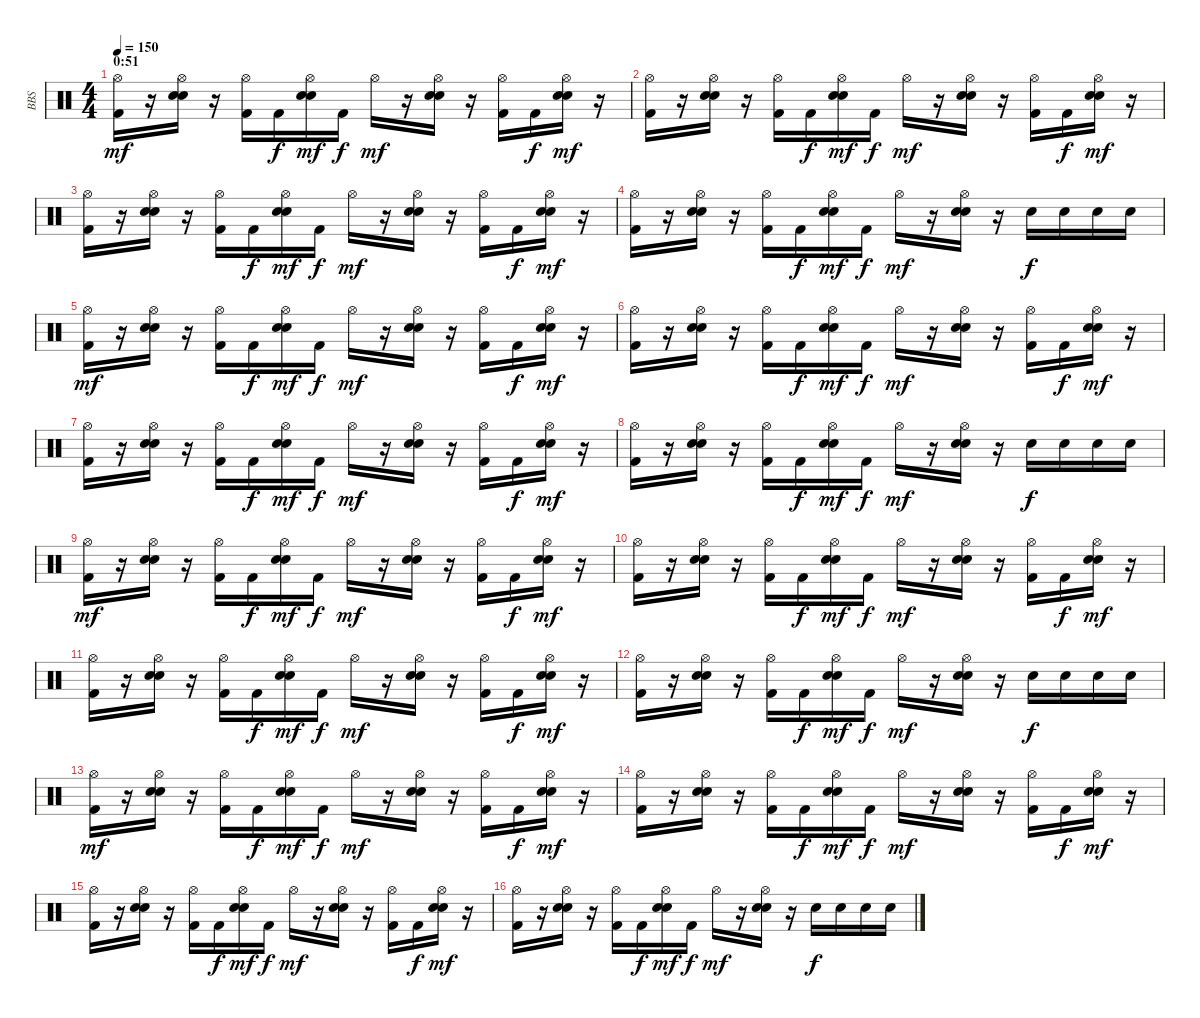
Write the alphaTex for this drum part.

\track ("BBS" "BBS") {instrument percussion}
\staff {score}
\articulation defaults
\ts (4 4)
\section ("" "0:51")
\tempo 150
\clef neutral
\ks c
("Kick (hit) 2" "Hi-Hat (open)").16{dy mf} r.16 ("Electric Snare (hit)" "Electric Snare (hit)" "Hi-Hat (open)").16 r.16 ("Kick (hit) 2" "Hi-Hat (open)").16 "Kick (hit) 2".16{dy f} ("Electric Snare (hit)" "Electric Snare (hit)" "Hi-Hat (open)").16{dy mf} "Kick (hit) 2".16{dy f} "Hi-Hat (open)".16{dy mf} r.16 ("Electric Snare (hit)" "Electric Snare (hit)" "Hi-Hat (open)").16 r.16 ("Kick (hit) 2" "Hi-Hat (open)").16 "Kick (hit) 2".16{dy f} ("Electric Snare (hit)" "Electric Snare (hit)" "Hi-Hat (open)").16{dy mf} r.16 |
("Kick (hit) 2" "Hi-Hat (open)").16 r.16 ("Electric Snare (hit)" "Electric Snare (hit)" "Hi-Hat (open)").16 r.16 ("Kick (hit) 2" "Hi-Hat (open)").16 "Kick (hit) 2".16{dy f} ("Electric Snare (hit)" "Electric Snare (hit)" "Hi-Hat (open)").16{dy mf} "Kick (hit) 2".16{dy f} "Hi-Hat (open)".16{dy mf} r.16 ("Electric Snare (hit)" "Electric Snare (hit)" "Hi-Hat (open)").16 r.16 ("Kick (hit) 2" "Hi-Hat (open)").16 "Kick (hit) 2".16{dy f} ("Electric Snare (hit)" "Electric Snare (hit)" "Hi-Hat (open)").16{dy mf} r.16 |
("Kick (hit) 2" "Hi-Hat (open)").16 r.16 ("Electric Snare (hit)" "Electric Snare (hit)" "Hi-Hat (open)").16 r.16 ("Kick (hit) 2" "Hi-Hat (open)").16 "Kick (hit) 2".16{dy f} ("Electric Snare (hit)" "Electric Snare (hit)" "Hi-Hat (open)").16{dy mf} "Kick (hit) 2".16{dy f} "Hi-Hat (open)".16{dy mf} r.16 ("Electric Snare (hit)" "Electric Snare (hit)" "Hi-Hat (open)").16 r.16 ("Kick (hit) 2" "Hi-Hat (open)").16 "Kick (hit) 2".16{dy f} ("Electric Snare (hit)" "Electric Snare (hit)" "Hi-Hat (open)").16{dy mf} r.16 |
("Kick (hit) 2" "Hi-Hat (open)").16 r.16 ("Electric Snare (hit)" "Electric Snare (hit)" "Hi-Hat (open)").16 r.16 ("Kick (hit) 2" "Hi-Hat (open)").16 "Kick (hit) 2".16{dy f} ("Electric Snare (hit)" "Electric Snare (hit)" "Hi-Hat (open)").16{dy mf} "Kick (hit) 2".16{dy f} "Hi-Hat (open)".16{dy mf} r.16 ("Electric Snare (hit)" "Electric Snare (hit)" "Hi-Hat (open)").16 r.16 "Electric Snare (hit)".16{dy f} "Electric Snare (hit)".16 "Electric Snare (hit)".16 "Electric Snare (hit)".16 |
("Kick (hit) 2" "Hi-Hat (open)").16{dy mf} r.16 ("Electric Snare (hit)" "Electric Snare (hit)" "Hi-Hat (open)").16 r.16 ("Kick (hit) 2" "Hi-Hat (open)").16 "Kick (hit) 2".16{dy f} ("Electric Snare (hit)" "Electric Snare (hit)" "Hi-Hat (open)").16{dy mf} "Kick (hit) 2".16{dy f} "Hi-Hat (open)".16{dy mf} r.16 ("Electric Snare (hit)" "Electric Snare (hit)" "Hi-Hat (open)").16 r.16 ("Kick (hit) 2" "Hi-Hat (open)").16 "Kick (hit) 2".16{dy f} ("Electric Snare (hit)" "Electric Snare (hit)" "Hi-Hat (open)").16{dy mf} r.16 |
("Kick (hit) 2" "Hi-Hat (open)").16 r.16 ("Electric Snare (hit)" "Electric Snare (hit)" "Hi-Hat (open)").16 r.16 ("Kick (hit) 2" "Hi-Hat (open)").16 "Kick (hit) 2".16{dy f} ("Electric Snare (hit)" "Electric Snare (hit)" "Hi-Hat (open)").16{dy mf} "Kick (hit) 2".16{dy f} "Hi-Hat (open)".16{dy mf} r.16 ("Electric Snare (hit)" "Electric Snare (hit)" "Hi-Hat (open)").16 r.16 ("Kick (hit) 2" "Hi-Hat (open)").16 "Kick (hit) 2".16{dy f} ("Electric Snare (hit)" "Electric Snare (hit)" "Hi-Hat (open)").16{dy mf} r.16 |
("Kick (hit) 2" "Hi-Hat (open)").16 r.16 ("Electric Snare (hit)" "Electric Snare (hit)" "Hi-Hat (open)").16 r.16 ("Kick (hit) 2" "Hi-Hat (open)").16 "Kick (hit) 2".16{dy f} ("Electric Snare (hit)" "Electric Snare (hit)" "Hi-Hat (open)").16{dy mf} "Kick (hit) 2".16{dy f} "Hi-Hat (open)".16{dy mf} r.16 ("Electric Snare (hit)" "Electric Snare (hit)" "Hi-Hat (open)").16 r.16 ("Kick (hit) 2" "Hi-Hat (open)").16 "Kick (hit) 2".16{dy f} ("Electric Snare (hit)" "Electric Snare (hit)" "Hi-Hat (open)").16{dy mf} r.16 |
("Kick (hit) 2" "Hi-Hat (open)").16 r.16 ("Electric Snare (hit)" "Electric Snare (hit)" "Hi-Hat (open)").16 r.16 ("Kick (hit) 2" "Hi-Hat (open)").16 "Kick (hit) 2".16{dy f} ("Electric Snare (hit)" "Electric Snare (hit)" "Hi-Hat (open)").16{dy mf} "Kick (hit) 2".16{dy f} "Hi-Hat (open)".16{dy mf} r.16 ("Electric Snare (hit)" "Electric Snare (hit)" "Hi-Hat (open)").16 r.16 "Electric Snare (hit)".16{dy f} "Electric Snare (hit)".16 "Electric Snare (hit)".16 "Electric Snare (hit)".16 |
("Kick (hit) 2" "Hi-Hat (open)").16{dy mf} r.16 ("Electric Snare (hit)" "Electric Snare (hit)" "Hi-Hat (open)").16 r.16 ("Kick (hit) 2" "Hi-Hat (open)").16 "Kick (hit) 2".16{dy f} ("Electric Snare (hit)" "Electric Snare (hit)" "Hi-Hat (open)").16{dy mf} "Kick (hit) 2".16{dy f} "Hi-Hat (open)".16{dy mf} r.16 ("Electric Snare (hit)" "Electric Snare (hit)" "Hi-Hat (open)").16 r.16 ("Kick (hit) 2" "Hi-Hat (open)").16 "Kick (hit) 2".16{dy f} ("Electric Snare (hit)" "Electric Snare (hit)" "Hi-Hat (open)").16{dy mf} r.16 |
("Kick (hit) 2" "Hi-Hat (open)").16 r.16 ("Electric Snare (hit)" "Electric Snare (hit)" "Hi-Hat (open)").16 r.16 ("Kick (hit) 2" "Hi-Hat (open)").16 "Kick (hit) 2".16{dy f} ("Electric Snare (hit)" "Electric Snare (hit)" "Hi-Hat (open)").16{dy mf} "Kick (hit) 2".16{dy f} "Hi-Hat (open)".16{dy mf} r.16 ("Electric Snare (hit)" "Electric Snare (hit)" "Hi-Hat (open)").16 r.16 ("Kick (hit) 2" "Hi-Hat (open)").16 "Kick (hit) 2".16{dy f} ("Electric Snare (hit)" "Electric Snare (hit)" "Hi-Hat (open)").16{dy mf} r.16 |
("Kick (hit) 2" "Hi-Hat (open)").16 r.16 ("Electric Snare (hit)" "Electric Snare (hit)" "Hi-Hat (open)").16 r.16 ("Kick (hit) 2" "Hi-Hat (open)").16 "Kick (hit) 2".16{dy f} ("Electric Snare (hit)" "Electric Snare (hit)" "Hi-Hat (open)").16{dy mf} "Kick (hit) 2".16{dy f} "Hi-Hat (open)".16{dy mf} r.16 ("Electric Snare (hit)" "Electric Snare (hit)" "Hi-Hat (open)").16 r.16 ("Kick (hit) 2" "Hi-Hat (open)").16 "Kick (hit) 2".16{dy f} ("Electric Snare (hit)" "Electric Snare (hit)" "Hi-Hat (open)").16{dy mf} r.16 |
("Kick (hit) 2" "Hi-Hat (open)").16 r.16 ("Electric Snare (hit)" "Electric Snare (hit)" "Hi-Hat (open)").16 r.16 ("Kick (hit) 2" "Hi-Hat (open)").16 "Kick (hit) 2".16{dy f} ("Electric Snare (hit)" "Electric Snare (hit)" "Hi-Hat (open)").16{dy mf} "Kick (hit) 2".16{dy f} "Hi-Hat (open)".16{dy mf} r.16 ("Electric Snare (hit)" "Electric Snare (hit)" "Hi-Hat (open)").16 r.16 "Electric Snare (hit)".16{dy f} "Electric Snare (hit)".16 "Electric Snare (hit)".16 "Electric Snare (hit)".16 |
("Kick (hit) 2" "Hi-Hat (open)").16{dy mf} r.16 ("Electric Snare (hit)" "Electric Snare (hit)" "Hi-Hat (open)").16 r.16 ("Kick (hit) 2" "Hi-Hat (open)").16 "Kick (hit) 2".16{dy f} ("Electric Snare (hit)" "Electric Snare (hit)" "Hi-Hat (open)").16{dy mf} "Kick (hit) 2".16{dy f} "Hi-Hat (open)".16{dy mf} r.16 ("Electric Snare (hit)" "Electric Snare (hit)" "Hi-Hat (open)").16 r.16 ("Kick (hit) 2" "Hi-Hat (open)").16 "Kick (hit) 2".16{dy f} ("Electric Snare (hit)" "Electric Snare (hit)" "Hi-Hat (open)").16{dy mf} r.16 |
("Kick (hit) 2" "Hi-Hat (open)").16 r.16 ("Electric Snare (hit)" "Electric Snare (hit)" "Hi-Hat (open)").16 r.16 ("Kick (hit) 2" "Hi-Hat (open)").16 "Kick (hit) 2".16{dy f} ("Electric Snare (hit)" "Electric Snare (hit)" "Hi-Hat (open)").16{dy mf} "Kick (hit) 2".16{dy f} "Hi-Hat (open)".16{dy mf} r.16 ("Electric Snare (hit)" "Electric Snare (hit)" "Hi-Hat (open)").16 r.16 ("Kick (hit) 2" "Hi-Hat (open)").16 "Kick (hit) 2".16{dy f} ("Electric Snare (hit)" "Electric Snare (hit)" "Hi-Hat (open)").16{dy mf} r.16 |
("Kick (hit) 2" "Hi-Hat (open)").16 r.16 ("Electric Snare (hit)" "Electric Snare (hit)" "Hi-Hat (open)").16 r.16 ("Kick (hit) 2" "Hi-Hat (open)").16 "Kick (hit) 2".16{dy f} ("Electric Snare (hit)" "Electric Snare (hit)" "Hi-Hat (open)").16{dy mf} "Kick (hit) 2".16{dy f} "Hi-Hat (open)".16{dy mf} r.16 ("Electric Snare (hit)" "Electric Snare (hit)" "Hi-Hat (open)").16 r.16 ("Kick (hit) 2" "Hi-Hat (open)").16 "Kick (hit) 2".16{dy f} ("Electric Snare (hit)" "Electric Snare (hit)" "Hi-Hat (open)").16{dy mf} r.16 |
("Kick (hit) 2" "Hi-Hat (open)").16 r.16 ("Electric Snare (hit)" "Electric Snare (hit)" "Hi-Hat (open)").16 r.16 ("Kick (hit) 2" "Hi-Hat (open)").16 "Kick (hit) 2".16{dy f} ("Electric Snare (hit)" "Electric Snare (hit)" "Hi-Hat (open)").16{dy mf} "Kick (hit) 2".16{dy f} "Hi-Hat (open)".16{dy mf} r.16 ("Electric Snare (hit)" "Electric Snare (hit)" "Hi-Hat (open)").16 r.16 "Electric Snare (hit)".16{dy f} "Electric Snare (hit)".16 "Electric Snare (hit)".16 "Electric Snare (hit)".16
